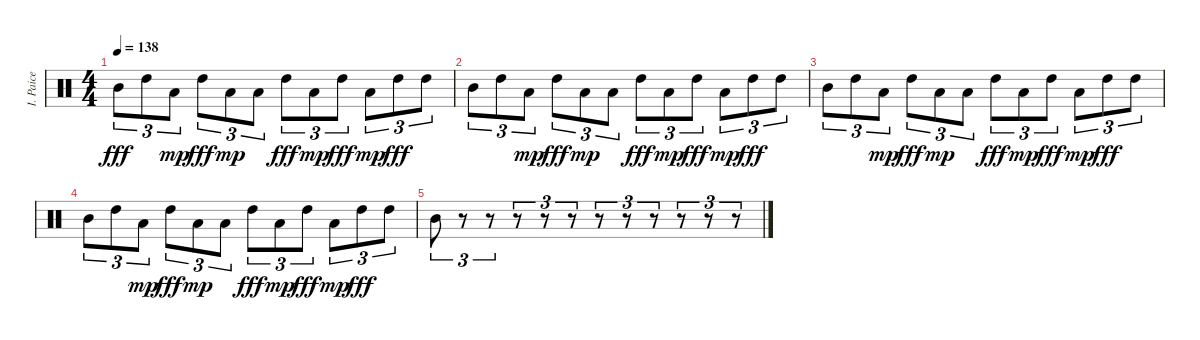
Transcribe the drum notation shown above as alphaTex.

\track ("I. Paice" "I. Paice") {instrument percussion}
\staff {score}
\articulation defaults
\ts (4 4)
\tempo 138
\clef neutral
\ks c "Mid Tom (hit)".8{tu (3 2) dy fff} "High Tom (hit)".8{tu (3 2)} "Low Tom (hit)".8{tu (3 2) dy mp} "High Tom (hit)".8{tu (3 2) dy fff} "Low Tom (hit)".8{tu (3 2) dy mp} "Low Tom (hit)".8{tu (3 2)} "High Tom (hit)".8{tu (3 2) dy fff} "Low Tom (hit)".8{tu (3 2) dy mp} "High Tom (hit)".8{tu (3 2) dy fff} "Low Tom (hit)".8{tu (3 2) dy mp} "High Tom (hit)".8{tu (3 2) dy fff} "High Tom (hit)".8{tu (3 2)}
|
"Mid Tom (hit)".8{tu (3 2)} "High Tom (hit)".8{tu (3 2)} "Low Tom (hit)".8{tu (3 2) dy mp} "High Tom (hit)".8{tu (3 2) dy fff} "Low Tom (hit)".8{tu (3 2) dy mp} "Low Tom (hit)".8{tu (3 2)} "High Tom (hit)".8{tu (3 2) dy fff} "Low Tom (hit)".8{tu (3 2) dy mp} "High Tom (hit)".8{tu (3 2) dy fff} "Low Tom (hit)".8{tu (3 2) dy mp} "High Tom (hit)".8{tu (3 2) dy fff} "High Tom (hit)".8{tu (3 2)} |
"Mid Tom (hit)".8{tu (3 2)} "High Tom (hit)".8{tu (3 2)} "Low Tom (hit)".8{tu (3 2) dy mp} "High Tom (hit)".8{tu (3 2) dy fff} "Low Tom (hit)".8{tu (3 2) dy mp} "Low Tom (hit)".8{tu (3 2)} "High Tom (hit)".8{tu (3 2) dy fff} "Low Tom (hit)".8{tu (3 2) dy mp} "High Tom (hit)".8{tu (3 2) dy fff} "Low Tom (hit)".8{tu (3 2) dy mp} "High Tom (hit)".8{tu (3 2) dy fff} "High Tom (hit)".8{tu (3 2)} |
"Mid Tom (hit)".8{tu (3 2)} "High Tom (hit)".8{tu (3 2)} "Low Tom (hit)".8{tu (3 2) dy mp} "High Tom (hit)".8{tu (3 2) dy fff} "Low Tom (hit)".8{tu (3 2) dy mp} "Low Tom (hit)".8{tu (3 2)} "High Tom (hit)".8{tu (3 2) dy fff} "Low Tom (hit)".8{tu (3 2) dy mp} "High Tom (hit)".8{tu (3 2) dy fff} "Low Tom (hit)".8{tu (3 2) dy mp} "High Tom (hit)".8{tu (3 2) dy fff} "High Tom (hit)".8{tu (3 2)} |
"Mid Tom (hit)".8{tu (3 2)} r.8{tu (3 2)} r.8{tu (3 2)} r.8{tu (3 2)} r.8{tu (3 2)} r.8{tu (3 2)} r.8{tu (3 2)} r.8{tu (3 2)} r.8{tu (3 2)} r.8{tu (3 2)} r.8{tu (3 2)} r.8{tu (3 2)}
